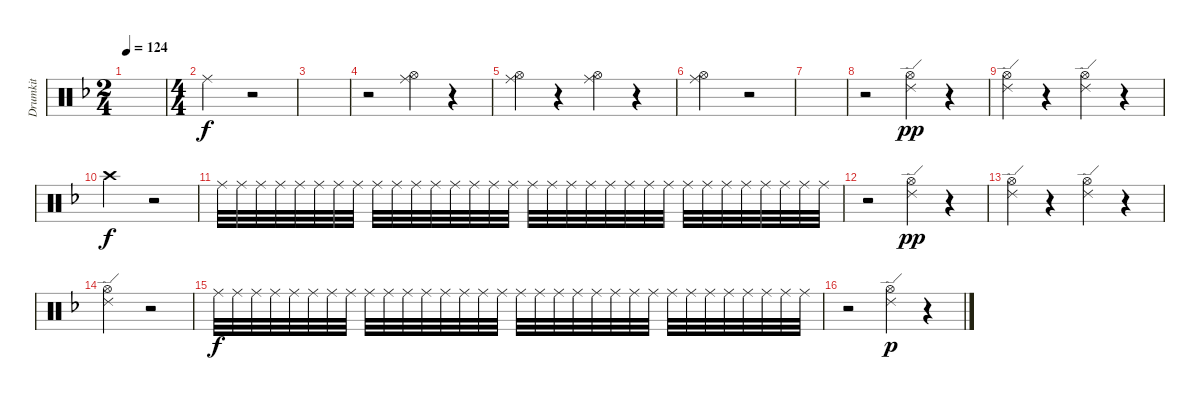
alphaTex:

\track ("Drumkit" "Drumkit") {instrument percussion}
\staff {score}
\articulation defaults
\ts (2 4)
\tempo 124
\clef neutral
\ks dminor
|
\ts (4 4)
"Ride (middle)".2 r.2 |
|
r.2 ("Hi-Hat (open)" "Ride (middle)").4 r.4 |
("Hi-Hat (open)" "Ride (middle)").4 r.4 ("Hi-Hat (open)" "Ride (middle)").4 r.4 |
("Hi-Hat (open)" "Ride (middle)").2 r.2 |
|
r.2 ("Hi-Hat (open)" "Ride (edge) 2").4{dy pp} r.4 |
("Hi-Hat (open)" "Ride (edge) 2").4 r.4 ("Hi-Hat (open)" "Ride (edge) 2").4 r.4 |
"Crash high (hit)".2{dy f} r.2 |
"Ride (middle)".32 "Ride (middle)".32 "Ride (middle)".32 "Ride (middle)".32 "Ride (middle)".32 "Ride (middle)".32 "Ride (middle)".32 "Ride (middle)".32 "Ride (middle)".32 "Ride (middle)".32 "Ride (middle)".32 "Ride (middle)".32 "Ride (middle)".32 "Ride (middle)".32 "Ride (middle)".32 "Ride (middle)".32 "Ride (middle)".32 "Ride (middle)".32 "Ride (middle)".32 "Ride (middle)".32 "Ride (middle)".32 "Ride (middle)".32 "Ride (middle)".32 "Ride (middle)".32 "Ride (middle)".32 "Ride (middle)".32 "Ride (middle)".32 "Ride (middle)".32 "Ride (middle)".32 "Ride (middle)".32 "Ride (middle)".32 "Ride (middle)".32 |
r.2 ("Hi-Hat (open)" "Ride (edge) 2").4{dy pp} r.4 |
("Hi-Hat (open)" "Ride (edge) 2").4 r.4 ("Hi-Hat (open)" "Ride (edge) 2").4 r.4 |
("Hi-Hat (open)" "Ride (edge) 2").2 r.2 |
"Ride (middle)".32{dy f} "Ride (middle)".32 "Ride (middle)".32 "Ride (middle)".32 "Ride (middle)".32 "Ride (middle)".32 "Ride (middle)".32 "Ride (middle)".32 "Ride (middle)".32 "Ride (middle)".32 "Ride (middle)".32 "Ride (middle)".32 "Ride (middle)".32 "Ride (middle)".32 "Ride (middle)".32 "Ride (middle)".32 "Ride (middle)".32 "Ride (middle)".32 "Ride (middle)".32 "Ride (middle)".32 "Ride (middle)".32 "Ride (middle)".32 "Ride (middle)".32 "Ride (middle)".32 "Ride (middle)".32 "Ride (middle)".32 "Ride (middle)".32 "Ride (middle)".32 "Ride (middle)".32 "Ride (middle)".32 "Ride (middle)".32 "Ride (middle)".32 |
r.2 ("Hi-Hat (open)" "Ride (edge) 2").4{dy p} r.4
